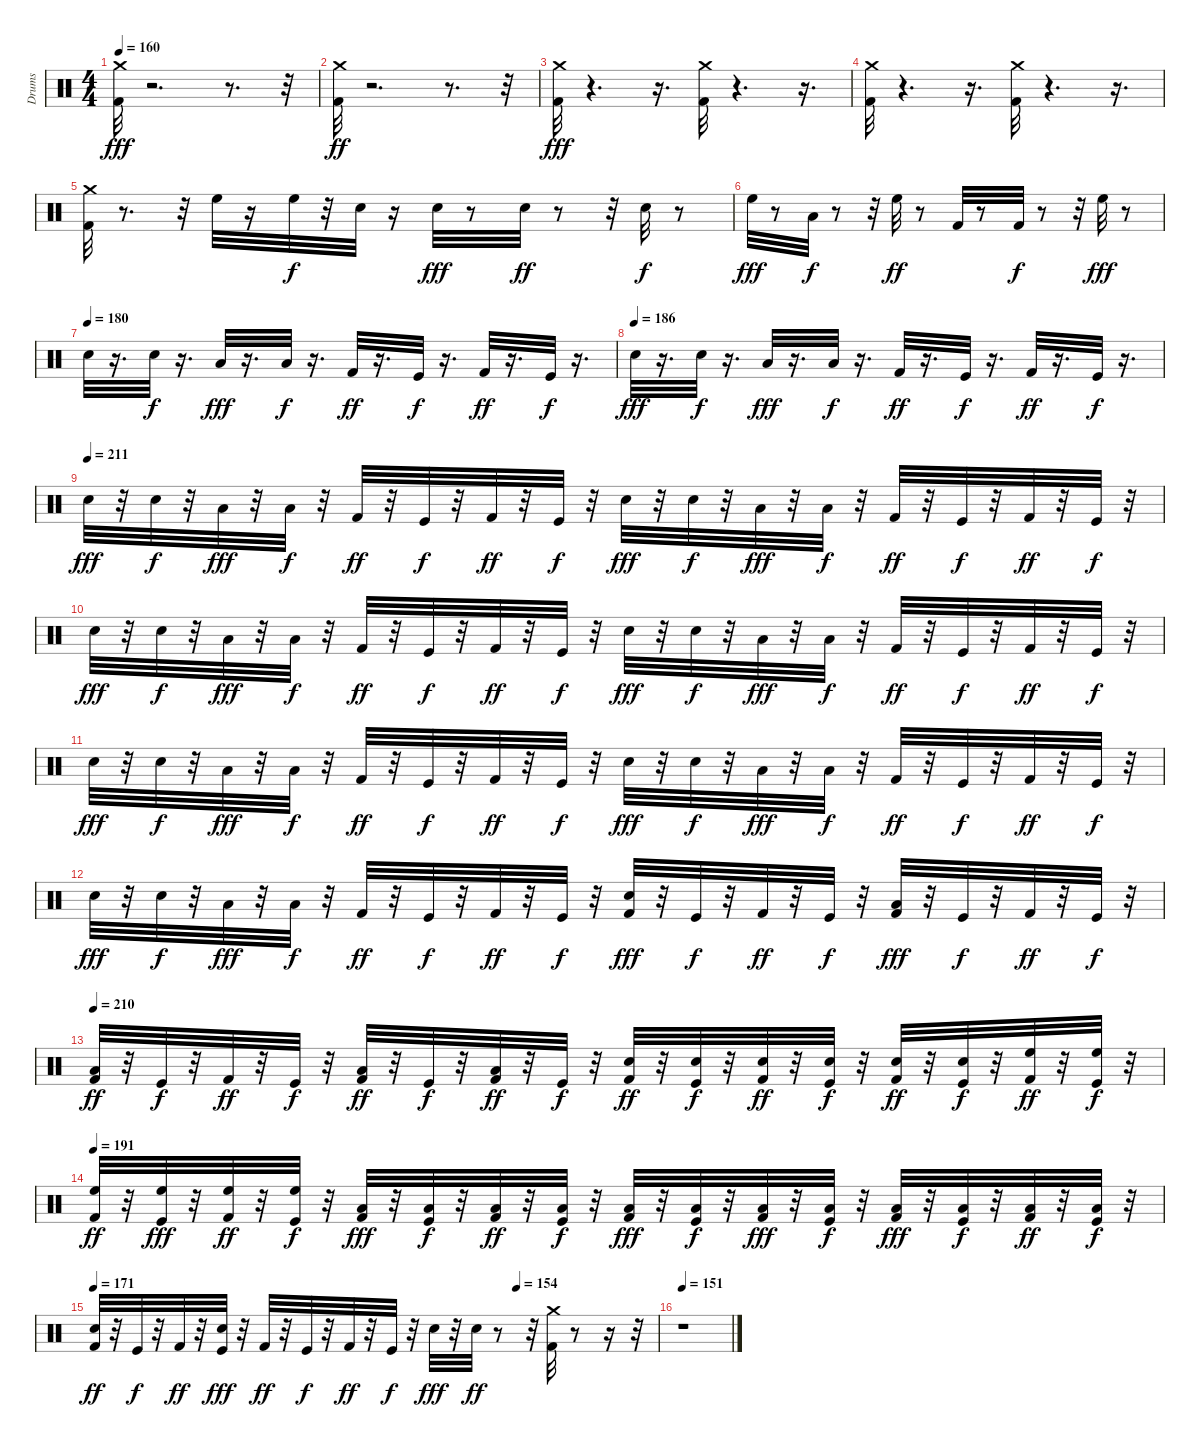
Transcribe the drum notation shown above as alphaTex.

\track ("Drums" "Drums") {instrument percussion}
\staff {score}
\articulation defaults
\ts (4 4)
\tempo 160
\clef neutral
\ks c
("Kick (hit) 2" "Crash medium (hit)").32{dy fff} r.2{d} r.8{d} r.32 |
("Crash medium (hit)" "Kick (hit) 2").32{dy ff} r.2{d} r.8{d} r.32 |
("Kick (hit) 2" "Crash medium (hit)").32{dy fff} r.4{d} r.16{d} ("Kick (hit) 2" "Crash medium (hit)").32 r.4{d} r.16{d} |
("Kick (hit) 2" "Crash medium (hit)").32 r.4{d} r.16{d} ("Kick (hit) 2" "Crash medium (hit)").32 r.4{d} r.16{d} |
("Kick (hit) 2" "Crash medium (hit)").32 r.8{d} r.32 "High Floor Tom (hit)".32 r.16 "High Floor Tom (hit)".32{dy f} r.32 "Snare (hit) 2".32 r.16 "Snare (hit) 2".32{dy fff} r.8 "Snare (hit) 2".32{dy ff} r.8 r.32 "Snare (hit) 2".32{dy f} r.8 |
"High Floor Tom (hit)".32{dy fff} r.8 "Low Tom (hit)".32{dy f} r.8 r.32 "High Floor Tom (hit)".32{dy ff} r.8 "Kick (hit) 2".32 r.8 "Kick (hit) 2".32{dy f} r.8 r.32 "High Floor Tom (hit)".32{dy fff} r.8 |
\tempo (180)
"Snare (hit) 2".32 r.16{d} "Snare (hit) 2".32{dy f} r.16{d} "Low Tom (hit)".32{dy fff} r.16{d} "Low Tom (hit)".32{dy f} r.16{d} "Kick (hit) 2".32{dy ff} r.16{d} "Kick (hit)".32{dy f} r.16{d} "Kick (hit) 2".32{dy ff} r.16{d} "Kick (hit)".32{dy f} r.16{d} |
\tempo (186)
"Snare (hit) 2".32{dy fff} r.16{d} "Snare (hit) 2".32{dy f} r.16{d} "Low Tom (hit)".32{dy fff} r.16{d} "Low Tom (hit)".32{dy f} r.16{d} "Kick (hit) 2".32{dy ff} r.16{d} "Kick (hit)".32{dy f} r.16{d} "Kick (hit) 2".32{dy ff} r.16{d} "Kick (hit)".32{dy f} r.16{d} |
\tempo (211)
"Snare (hit) 2".32{dy fff} r.32 "Snare (hit) 2".32{dy f} r.32 "Low Tom (hit)".32{dy fff} r.32 "Low Tom (hit)".32{dy f} r.32 "Kick (hit) 2".32{dy ff} r.32 "Kick (hit)".32{dy f} r.32 "Kick (hit) 2".32{dy ff} r.32 "Kick (hit)".32{dy f} r.32 "Snare (hit) 2".32{dy fff} r.32 "Snare (hit) 2".32{dy f} r.32 "Low Tom (hit)".32{dy fff} r.32 "Low Tom (hit)".32{dy f} r.32 "Kick (hit) 2".32{dy ff} r.32 "Kick (hit)".32{dy f} r.32 "Kick (hit) 2".32{dy ff} r.32 "Kick (hit)".32{dy f} r.32 |
"Snare (hit) 2".32{dy fff} r.32 "Snare (hit) 2".32{dy f} r.32 "Low Tom (hit)".32{dy fff} r.32 "Low Tom (hit)".32{dy f} r.32 "Kick (hit) 2".32{dy ff} r.32 "Kick (hit)".32{dy f} r.32 "Kick (hit) 2".32{dy ff} r.32 "Kick (hit)".32{dy f} r.32 "Snare (hit) 2".32{dy fff} r.32 "Snare (hit) 2".32{dy f} r.32 "Low Tom (hit)".32{dy fff} r.32 "Low Tom (hit)".32{dy f} r.32 "Kick (hit) 2".32{dy ff} r.32 "Kick (hit)".32{dy f} r.32 "Kick (hit) 2".32{dy ff} r.32 "Kick (hit)".32{dy f} r.32 |
"Snare (hit) 2".32{dy fff} r.32 "Snare (hit) 2".32{dy f} r.32 "Low Tom (hit)".32{dy fff} r.32 "Low Tom (hit)".32{dy f} r.32 "Kick (hit) 2".32{dy ff} r.32 "Kick (hit)".32{dy f} r.32 "Kick (hit) 2".32{dy ff} r.32 "Kick (hit)".32{dy f} r.32 "Snare (hit) 2".32{dy fff} r.32 "Snare (hit) 2".32{dy f} r.32 "Low Tom (hit)".32{dy fff} r.32 "Low Tom (hit)".32{dy f} r.32 "Kick (hit) 2".32{dy ff} r.32 "Kick (hit)".32{dy f} r.32 "Kick (hit) 2".32{dy ff} r.32 "Kick (hit)".32{dy f} r.32 |
"Snare (hit) 2".32{dy fff} r.32 "Snare (hit) 2".32{dy f} r.32 "Low Tom (hit)".32{dy fff} r.32 "Low Tom (hit)".32{dy f} r.32 "Kick (hit) 2".32{dy ff} r.32 "Kick (hit)".32{dy f} r.32 "Kick (hit) 2".32{dy ff} r.32 "Kick (hit)".32{dy f} r.32 ("Kick (hit) 2" "Snare (hit) 2").32{dy fff} r.32 "Kick (hit)".32{dy f} r.32 "Kick (hit) 2".32{dy ff} r.32 "Kick (hit)".32{dy f} r.32 ("Kick (hit) 2" "Low Tom (hit)").32{dy fff} r.32 "Kick (hit)".32{dy f} r.32 "Kick (hit) 2".32{dy ff} r.32 "Kick (hit)".32{dy f} r.32 |
\tempo 210
("Low Tom (hit)" "Kick (hit) 2").32{dy ff} r.32 "Kick (hit)".32{dy f} r.32 "Kick (hit) 2".32{dy ff} r.32 "Kick (hit)".32{dy f} r.32 ("Low Tom (hit)" "Kick (hit) 2").32{dy ff} r.32 "Kick (hit)".32{dy f} r.32 ("Low Tom (hit)" "Kick (hit) 2").32{dy ff} r.32 "Kick (hit)".32{dy f} r.32 ("Snare (hit) 2" "Kick (hit) 2").32{dy ff} r.32 ("Snare (hit) 2" "Kick (hit)").32{dy f} r.32 ("Snare (hit) 2" "Kick (hit) 2").32{dy ff} r.32 ("Snare (hit) 2" "Kick (hit)").32{dy f} r.32 ("Snare (hit) 2" "Kick (hit) 2").32{dy ff} r.32 ("Snare (hit) 2" "Kick (hit)").32{dy f} r.32 ("High Floor Tom (hit)" "Kick (hit) 2").32{dy ff} r.32 ("High Floor Tom (hit)" "Kick (hit)").32{dy f} r.32 |
\tempo 191
("Kick (hit) 2" "High Floor Tom (hit)").32{dy ff} r.32 ("Kick (hit)" "High Floor Tom (hit)").32{dy fff} r.32 ("Kick (hit) 2" "High Floor Tom (hit)").32{dy ff} r.32 ("Kick (hit)" "High Floor Tom (hit)").32{dy f} r.32 ("Kick (hit) 2" "Low Tom (hit)").32{dy fff} r.32 ("Kick (hit)" "Low Tom (hit)").32{dy f} r.32 ("Kick (hit) 2" "Low Tom (hit)").32{dy ff} r.32 ("Kick (hit)" "Low Tom (hit)").32{dy f} r.32 ("Kick (hit) 2" "Low Tom (hit)").32{dy fff} r.32 ("Kick (hit)" "Low Tom (hit)").32{dy f} r.32 ("Kick (hit) 2" "Low Floor Tom (hit)").32{dy fff} r.32 ("Kick (hit)" "Low Floor Tom (hit)").32{dy f} r.32 ("Kick (hit) 2" "Low Floor Tom (hit)").32{dy fff} r.32 ("Kick (hit)" "Low Floor Tom (hit)").32{dy f} r.32 ("Kick (hit) 2" "Low Floor Tom (hit)").32{dy ff} r.32 ("Kick (hit)" "Low Floor Tom (hit)").32{dy f} r.32 |
\tempo 171
\tempo (154 0.75)
("Snare (hit) 2" "Kick (hit) 2").32{dy ff} r.32 "Kick (hit)".32{dy f} r.32 "Kick (hit) 2".32{dy ff} r.32 ("Snare (hit) 2" "Kick (hit)").32{dy fff} r.32 "Kick (hit) 2".32{dy ff} r.32 "Kick (hit)".32{dy f} r.32 "Kick (hit) 2".32{dy ff} r.32 "Kick (hit)".32{dy f} r.32 "Snare (hit) 2".32{dy fff} r.32 "Snare (hit) 2".32{dy ff} r.8 r.32 ("Crash medium (hit)" "Kick (hit) 2").32 r.8 r.16 r.32 |
\tempo 151
r.1
